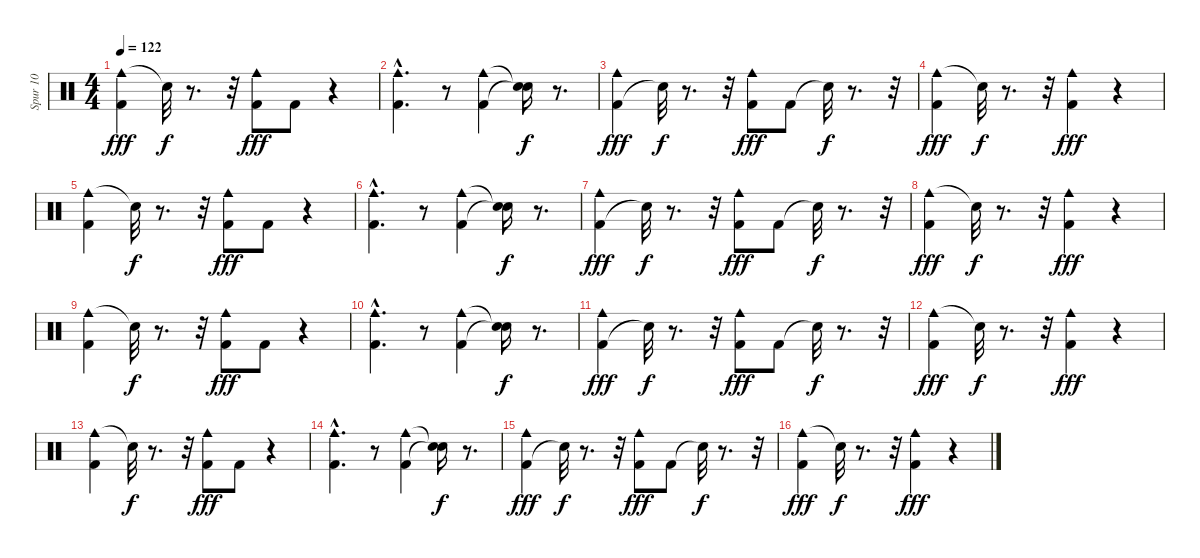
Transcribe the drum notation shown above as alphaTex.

\track ("Spur 10" "Spur 10") {instrument percussion}
\staff {score}
\articulation defaults
\ts (4 4)
\tempo 122
\clef neutral
\ks c
("Cowbell medium (hit)" "Kick (hit) 2").4{dy fff} "Snare (hit)"{t}.32{dy f} r.8{d} r.32 ("Cowbell medium (hit)" "Kick (hit) 2").8{dy fff} "Kick (hit) 2".8 r.4 |
("Cowbell medium (hit)" "Kick (hit) 2"{hac}).4{d} r.8 ("Kick (hit) 2" "Cowbell medium (hit)").4 ("Snare (hit)"{t} "Snare (hit)"{t}).16{dy f} r.8{d} |
("Kick (hit) 2" "Cowbell medium (hit)").4{dy fff} "Snare (hit)"{t}.32{dy f} r.8{d} r.32 ("Kick (hit) 2" "Cowbell medium (hit)").8{dy fff} "Kick (hit) 2".8 "Snare (hit)"{t}.32{dy f} r.8{d} r.32 |
("Cowbell medium (hit)" "Kick (hit) 2").4{dy fff} "Snare (hit)"{t}.32{dy f} r.8{d} r.32 ("Kick (hit) 2" "Cowbell medium (hit)").4{dy fff} r.4 |
("Cowbell medium (hit)" "Kick (hit) 2").4 "Snare (hit)"{t}.32{dy f} r.8{d} r.32 ("Cowbell medium (hit)" "Kick (hit) 2").8{dy fff} "Kick (hit) 2".8 r.4 |
("Cowbell medium (hit)" "Kick (hit) 2"{hac}).4{d} r.8 ("Kick (hit) 2" "Cowbell medium (hit)").4 ("Snare (hit)"{t} "Snare (hit)"{t}).16{dy f} r.8{d} |
("Kick (hit) 2" "Cowbell medium (hit)").4{dy fff} "Snare (hit)"{t}.32{dy f} r.8{d} r.32 ("Kick (hit) 2" "Cowbell medium (hit)").8{dy fff} "Kick (hit) 2".8 "Snare (hit)"{t}.32{dy f} r.8{d} r.32 |
("Cowbell medium (hit)" "Kick (hit) 2").4{dy fff} "Snare (hit)"{t}.32{dy f} r.8{d} r.32 ("Kick (hit) 2" "Cowbell medium (hit)").4{dy fff} r.4 |
("Cowbell medium (hit)" "Kick (hit) 2").4 "Snare (hit)"{t}.32{dy f} r.8{d} r.32 ("Cowbell medium (hit)" "Kick (hit) 2").8{dy fff} "Kick (hit) 2".8 r.4 |
("Cowbell medium (hit)" "Kick (hit) 2"{hac}).4{d} r.8 ("Kick (hit) 2" "Cowbell medium (hit)").4 ("Snare (hit)"{t} "Snare (hit)"{t}).16{dy f} r.8{d} |
("Kick (hit) 2" "Cowbell medium (hit)").4{dy fff} "Snare (hit)"{t}.32{dy f} r.8{d} r.32 ("Kick (hit) 2" "Cowbell medium (hit)").8{dy fff} "Kick (hit) 2".8 "Snare (hit)"{t}.32{dy f} r.8{d} r.32 |
("Cowbell medium (hit)" "Kick (hit) 2").4{dy fff} "Snare (hit)"{t}.32{dy f} r.8{d} r.32 ("Kick (hit) 2" "Cowbell medium (hit)").4{dy fff} r.4 |
("Cowbell medium (hit)" "Kick (hit) 2").4 "Snare (hit)"{t}.32{dy f} r.8{d} r.32 ("Cowbell medium (hit)" "Kick (hit) 2").8{dy fff} "Kick (hit) 2".8 r.4 |
("Cowbell medium (hit)" "Kick (hit) 2"{hac}).4{d} r.8 ("Kick (hit) 2" "Cowbell medium (hit)").4 ("Snare (hit)"{t} "Snare (hit)"{t}).16{dy f} r.8{d} |
("Kick (hit) 2" "Cowbell medium (hit)").4{dy fff} "Snare (hit)"{t}.32{dy f} r.8{d} r.32 ("Kick (hit) 2" "Cowbell medium (hit)").8{dy fff} "Kick (hit) 2".8 "Snare (hit)"{t}.32{dy f} r.8{d} r.32 |
("Cowbell medium (hit)" "Kick (hit) 2").4{dy fff} "Snare (hit)"{t}.32{dy f} r.8{d} r.32 ("Kick (hit) 2" "Cowbell medium (hit)").4{dy fff} r.4
